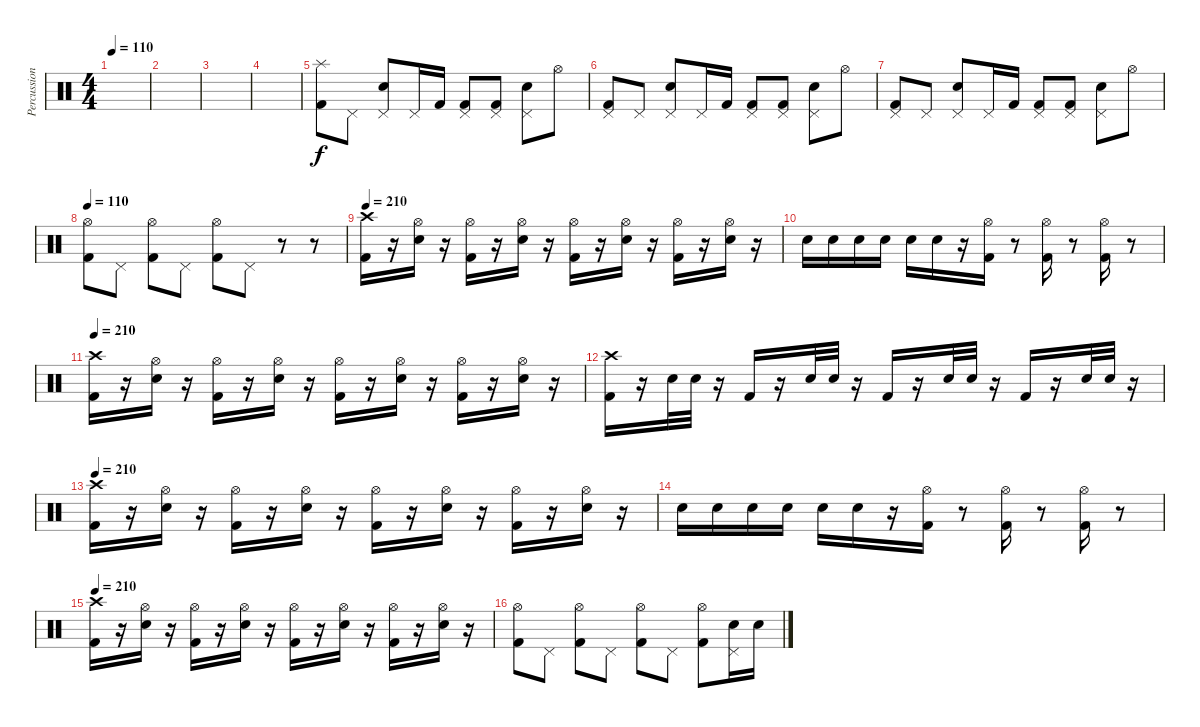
\track ("Percussioni" "Percussion") {instrument percussion}
\staff {score}
\articulation defaults
\ts (4 4)
\tempo 110
\tempo 90
\tempo 110
\clef neutral
\ks c
|
|
|
|
("Splash (hit)" "Kick (hit) 2").8 "Pedal Hi-Hat (hit)".8 ("Pedal Hi-Hat (hit)" "Electric Snare (hit)").8 "Pedal Hi-Hat (hit)".16 "Kick (hit) 2".16 ("Pedal Hi-Hat (hit)" "Kick (hit) 2").8 ("Pedal Hi-Hat (hit)" "Kick (hit) 2").8 ("Pedal Hi-Hat (hit)" "Electric Snare (hit)").8 "Hi-Hat (open)".8 |
("Pedal Hi-Hat (hit)" "Kick (hit) 2").8 "Pedal Hi-Hat (hit)".8 ("Pedal Hi-Hat (hit)" "Electric Snare (hit)").8 "Pedal Hi-Hat (hit)".16 "Kick (hit) 2".16 ("Pedal Hi-Hat (hit)" "Kick (hit) 2").8 ("Pedal Hi-Hat (hit)" "Kick (hit) 2").8 ("Pedal Hi-Hat (hit)" "Electric Snare (hit)").8 "Hi-Hat (open)".8 |
("Pedal Hi-Hat (hit)" "Kick (hit) 2").8 "Pedal Hi-Hat (hit)".8 ("Pedal Hi-Hat (hit)" "Electric Snare (hit)").8 "Pedal Hi-Hat (hit)".16 "Kick (hit) 2".16 ("Pedal Hi-Hat (hit)" "Kick (hit) 2").8 ("Pedal Hi-Hat (hit)" "Kick (hit) 2").8 ("Pedal Hi-Hat (hit)" "Electric Snare (hit)").8 "Hi-Hat (open)".8 |
\tempo 110
("Hi-Hat (open)" "Kick (hit) 2").8{volume 13} "Pedal Hi-Hat (hit)".8 ("Hi-Hat (open)" "Kick (hit) 2").8 "Pedal Hi-Hat (hit)".8 ("Hi-Hat (open)" "Kick (hit) 2").8 "Pedal Hi-Hat (hit)".8 r.8 r.8 |
\tempo 210
("Kick (hit) 2" "Crash high (hit)").16 r.16 ("Snare (hit) 2" "Hi-Hat (open)").16 r.16 ("Kick (hit) 2" "Hi-Hat (open)").16 r.16 ("Snare (hit) 2" "Hi-Hat (open)").16 r.16 ("Kick (hit) 2" "Hi-Hat (open)").16 r.16 ("Snare (hit) 2" "Hi-Hat (open)").16 r.16 ("Kick (hit) 2" "Hi-Hat (open)").16 r.16 ("Snare (hit) 2" "Hi-Hat (open)").16 r.16 |
"Snare (hit) 2".16 "Snare (hit) 2".16 "Snare (hit) 2".16 "Snare (hit) 2".16 "Snare (hit) 2".16 "Snare (hit) 2".16 r.16 ("Hi-Hat (open)" "Kick (hit) 2").16 r.8 ("Hi-Hat (open)" "Kick (hit) 2").16 r.8 ("Hi-Hat (open)" "Kick (hit) 2").16 r.8 |
\tempo 210
("Kick (hit) 2" "Crash high (hit)").16 r.16 ("Snare (hit) 2" "Hi-Hat (open)").16 r.16 ("Kick (hit) 2" "Hi-Hat (open)").16 r.16 ("Snare (hit) 2" "Hi-Hat (open)").16 r.16 ("Kick (hit) 2" "Hi-Hat (open)").16 r.16 ("Snare (hit) 2" "Hi-Hat (open)").16 r.16 ("Kick (hit) 2" "Hi-Hat (open)").16 r.16 ("Snare (hit) 2" "Hi-Hat (open)").16 r.16 |
("Crash high (hit)" "Kick (hit) 2").16 r.16 "Snare (hit) 2".32 "Snare (hit) 2".32 r.16 "Kick (hit) 2".16 r.16 "Snare (hit) 2".32 "Snare (hit) 2".32 r.16 "Kick (hit) 2".16 r.16 "Snare (hit) 2".32 "Snare (hit) 2".32 r.16 "Kick (hit) 2".16 r.16 "Snare (hit) 2".32 "Snare (hit) 2".32 r.16 |
\tempo 210
("Kick (hit) 2" "Crash high (hit)").16 r.16 ("Snare (hit) 2" "Hi-Hat (open)").16 r.16 ("Kick (hit) 2" "Hi-Hat (open)").16 r.16 ("Snare (hit) 2" "Hi-Hat (open)").16 r.16 ("Kick (hit) 2" "Hi-Hat (open)").16 r.16 ("Snare (hit) 2" "Hi-Hat (open)").16 r.16 ("Kick (hit) 2" "Hi-Hat (open)").16 r.16 ("Snare (hit) 2" "Hi-Hat (open)").16 r.16 |
"Snare (hit) 2".16 "Snare (hit) 2".16 "Snare (hit) 2".16 "Snare (hit) 2".16 "Snare (hit) 2".16 "Snare (hit) 2".16 r.16 ("Hi-Hat (open)" "Kick (hit) 2").16 r.8 ("Hi-Hat (open)" "Kick (hit) 2").16 r.8 ("Hi-Hat (open)" "Kick (hit) 2").16 r.8 |
\tempo 210
("Kick (hit) 2" "Crash high (hit)").16 r.16 ("Snare (hit) 2" "Hi-Hat (open)").16 r.16 ("Kick (hit) 2" "Hi-Hat (open)").16 r.16 ("Snare (hit) 2" "Hi-Hat (open)").16 r.16 ("Kick (hit) 2" "Hi-Hat (open)").16 r.16 ("Snare (hit) 2" "Hi-Hat (open)").16 r.16 ("Kick (hit) 2" "Hi-Hat (open)").16 r.16 ("Snare (hit) 2" "Hi-Hat (open)").16 r.16 |
("Hi-Hat (open)" "Kick (hit) 2").8 "Pedal Hi-Hat (hit)".8 ("Hi-Hat (open)" "Kick (hit) 2").8 "Pedal Hi-Hat (hit)".8 ("Hi-Hat (open)" "Kick (hit) 2").8 "Pedal Hi-Hat (hit)".8 ("Hi-Hat (open)" "Kick (hit) 2").8 ("Pedal Hi-Hat (hit)" "Snare (hit) 2").16 "Snare (hit) 2".16
